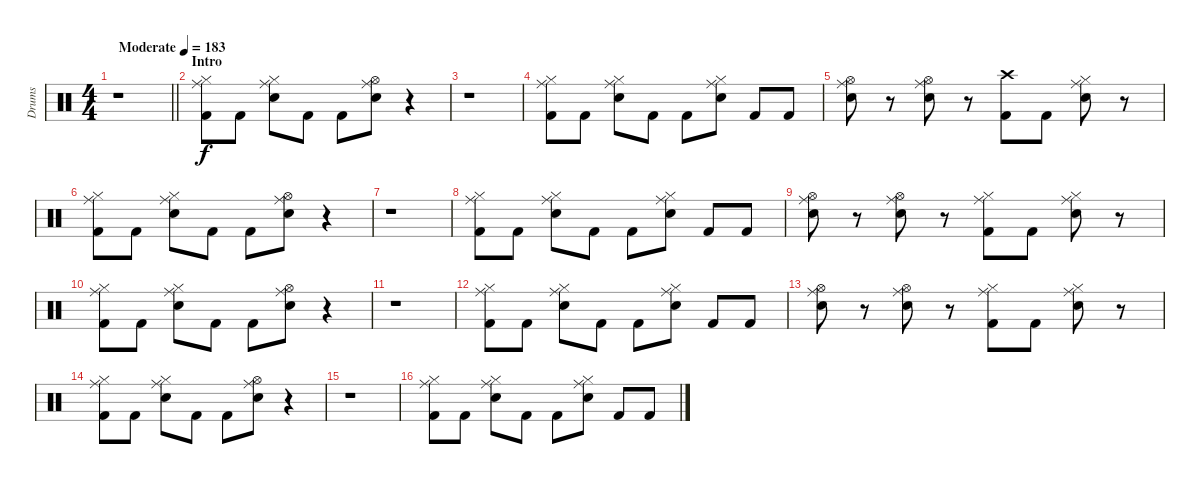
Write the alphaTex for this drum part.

\track ("Drums" "Drums") {instrument percussion}
\staff {score}
\articulation defaults
\ts (4 4)
\tempo (183 "Moderate")
\clef neutral
\barLineRight lightlight
\ks c
r.1{dy f} |
\section ("" "Intro")
("Hi-Hat (closed)" "Ride (middle)" "Kick (hit) 2").8 "Kick (hit) 2".8 ("Hi-Hat (closed)" "Ride (middle)" "Snare (hit) 2").8 "Kick (hit) 2".8 "Kick (hit) 2".8 ("Hi-Hat (open)" "Ride (middle)" "Snare (hit) 2").8{volume 4} r.4 |
r.1 |
("Hi-Hat (closed)" "Ride (middle)" "Kick (hit) 2").8{volume 13} "Kick (hit) 2".8 ("Hi-Hat (closed)" "Ride (middle)" "Snare (hit) 2").8 "Kick (hit) 2".8 "Kick (hit) 2".8 ("Hi-Hat (closed)" "Ride (middle)" "Snare (hit) 2").8 "Kick (hit) 2".8 "Kick (hit) 2".8 |
("Hi-Hat (open)" "Ride (middle)" "Snare (hit) 2").8 r.8 ("Hi-Hat (open)" "Ride (middle)" "Snare (hit) 2").8 r.8 ("Crash high (hit)" "Kick (hit) 2").8 "Kick (hit) 2".8 ("Hi-Hat (closed)" "Ride (middle)" "Snare (hit) 2").8 r.8 |
("Hi-Hat (closed)" "Ride (middle)" "Kick (hit) 2").8 "Kick (hit) 2".8 ("Hi-Hat (closed)" "Ride (middle)" "Snare (hit) 2").8 "Kick (hit) 2".8 "Kick (hit) 2".8 ("Hi-Hat (open)" "Ride (middle)" "Snare (hit) 2").8{volume 4} r.4 |
r.1 |
("Hi-Hat (closed)" "Ride (middle)" "Kick (hit) 2").8{volume 13} "Kick (hit) 2".8 ("Hi-Hat (closed)" "Ride (middle)" "Snare (hit) 2").8 "Kick (hit) 2".8 "Kick (hit) 2".8 ("Hi-Hat (closed)" "Ride (middle)" "Snare (hit) 2").8 "Kick (hit) 2".8 "Kick (hit) 2".8 |
("Hi-Hat (open)" "Ride (middle)" "Snare (hit) 2").8 r.8 ("Hi-Hat (open)" "Ride (middle)" "Snare (hit) 2").8 r.8 ("Hi-Hat (closed)" "Ride (middle)" "Kick (hit) 2").8 "Kick (hit) 2".8 ("Hi-Hat (closed)" "Ride (middle)" "Snare (hit) 2").8 r.8 |
("Hi-Hat (closed)" "Ride (middle)" "Kick (hit) 2").8 "Kick (hit) 2".8 ("Hi-Hat (closed)" "Ride (middle)" "Snare (hit) 2").8 "Kick (hit) 2".8 "Kick (hit) 2".8 ("Hi-Hat (open)" "Ride (middle)" "Snare (hit) 2").8{volume 4} r.4 |
r.1 |
("Hi-Hat (closed)" "Ride (middle)" "Kick (hit) 2").8{volume 13} "Kick (hit) 2".8 ("Hi-Hat (closed)" "Ride (middle)" "Snare (hit) 2").8 "Kick (hit) 2".8 "Kick (hit) 2".8 ("Hi-Hat (closed)" "Ride (middle)" "Snare (hit) 2").8 "Kick (hit) 2".8 "Kick (hit) 2".8 |
("Hi-Hat (open)" "Ride (middle)" "Snare (hit) 2").8 r.8 ("Hi-Hat (open)" "Ride (middle)" "Snare (hit) 2").8 r.8 ("Hi-Hat (closed)" "Ride (middle)" "Kick (hit) 2").8 "Kick (hit) 2".8 ("Hi-Hat (closed)" "Ride (middle)" "Snare (hit) 2").8 r.8 |
("Hi-Hat (closed)" "Ride (middle)" "Kick (hit) 2").8 "Kick (hit) 2".8 ("Hi-Hat (closed)" "Ride (middle)" "Snare (hit) 2").8 "Kick (hit) 2".8 "Kick (hit) 2".8 ("Hi-Hat (open)" "Ride (middle)" "Snare (hit) 2").8{volume 4} r.4 |
r.1 |
("Hi-Hat (closed)" "Ride (middle)" "Kick (hit) 2").8{volume 13} "Kick (hit) 2".8 ("Hi-Hat (closed)" "Ride (middle)" "Snare (hit) 2").8 "Kick (hit) 2".8 "Kick (hit) 2".8 ("Hi-Hat (closed)" "Ride (middle)" "Snare (hit) 2").8 "Kick (hit) 2".8 "Kick (hit) 2".8
